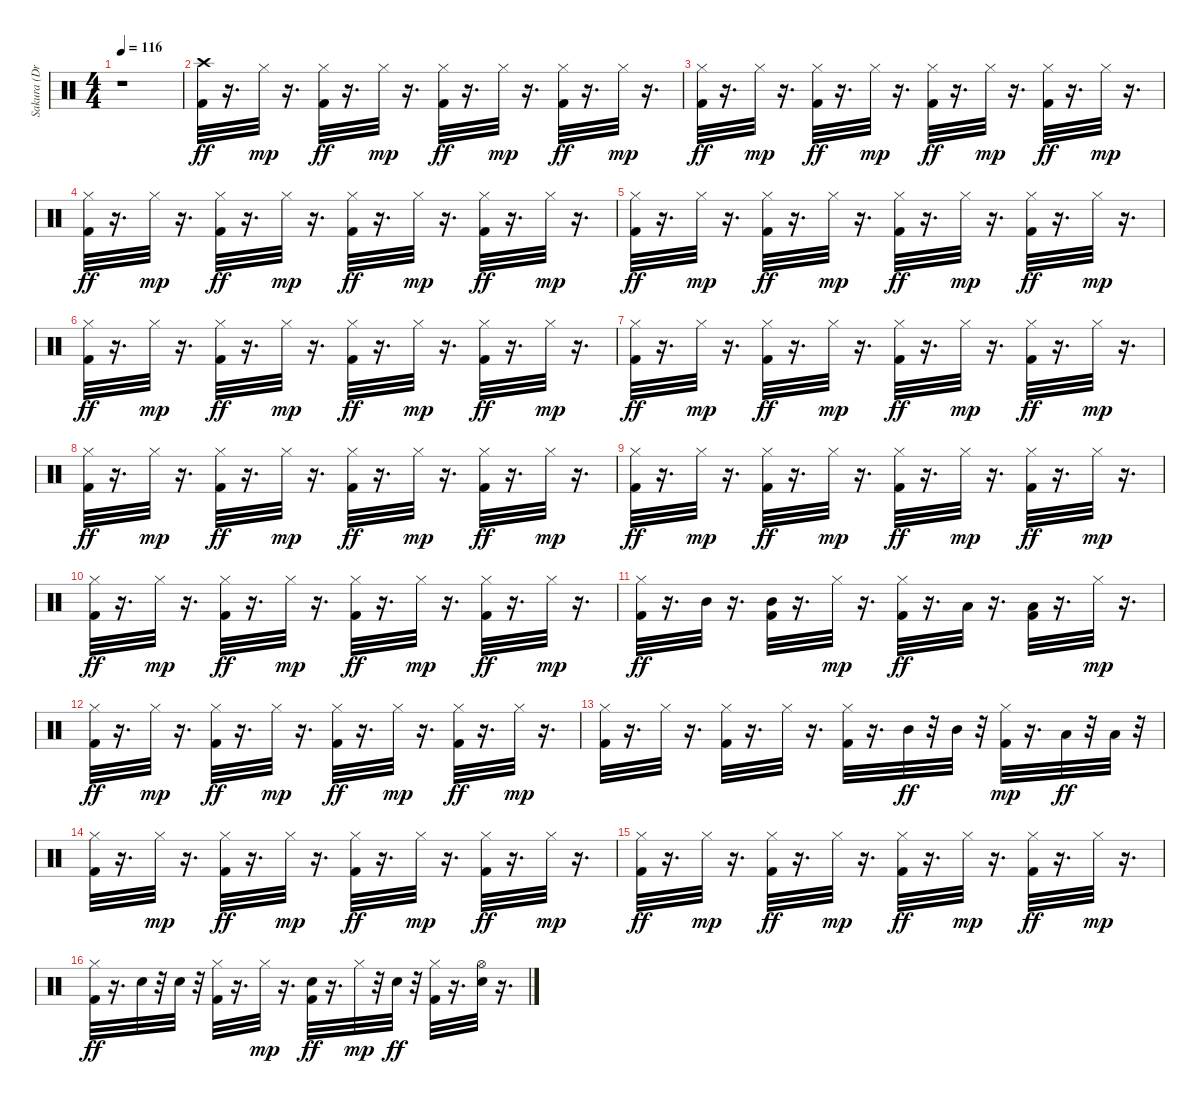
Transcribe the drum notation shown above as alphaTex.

\track ("Sakura (Drums)" "Sakura (Dr") {instrument percussion}
\staff {score}
\articulation defaults
\ts (4 4)
\tempo 116
\clef neutral
\ks c
r.1{dy ff} |
("Kick (hit) 2" "Crash high (hit)").32 r.16{d} "Hi-Hat (closed)".32{dy mp} r.16{d} ("Hi-Hat (closed)" "Kick (hit) 2").32{dy ff} r.16{d} "Hi-Hat (closed)".32{dy mp} r.16{d} ("Hi-Hat (closed)" "Kick (hit) 2").32{dy ff} r.16{d} "Hi-Hat (closed)".32{dy mp} r.16{d} ("Hi-Hat (closed)" "Kick (hit) 2").32{dy ff} r.16{d} "Hi-Hat (closed)".32{dy mp} r.16{d} |
("Hi-Hat (closed)" "Kick (hit) 2").32{dy ff} r.16{d} "Hi-Hat (closed)".32{dy mp} r.16{d} ("Hi-Hat (closed)" "Kick (hit) 2").32{dy ff} r.16{d} "Hi-Hat (closed)".32{dy mp} r.16{d} ("Hi-Hat (closed)" "Kick (hit) 2").32{dy ff} r.16{d} "Hi-Hat (closed)".32{dy mp} r.16{d} ("Hi-Hat (closed)" "Kick (hit) 2").32{dy ff} r.16{d} "Hi-Hat (closed)".32{dy mp} r.16{d} |
("Hi-Hat (closed)" "Kick (hit) 2").32{dy ff} r.16{d} "Hi-Hat (closed)".32{dy mp} r.16{d} ("Hi-Hat (closed)" "Kick (hit) 2").32{dy ff} r.16{d} "Hi-Hat (closed)".32{dy mp} r.16{d} ("Hi-Hat (closed)" "Kick (hit) 2").32{dy ff} r.16{d} "Hi-Hat (closed)".32{dy mp} r.16{d} ("Hi-Hat (closed)" "Kick (hit) 2").32{dy ff} r.16{d} "Hi-Hat (closed)".32{dy mp} r.16{d} |
("Hi-Hat (closed)" "Kick (hit) 2").32{dy ff} r.16{d} "Hi-Hat (closed)".32{dy mp} r.16{d} ("Hi-Hat (closed)" "Kick (hit) 2").32{dy ff} r.16{d} "Hi-Hat (closed)".32{dy mp} r.16{d} ("Hi-Hat (closed)" "Kick (hit) 2").32{dy ff} r.16{d} "Hi-Hat (closed)".32{dy mp} r.16{d} ("Hi-Hat (closed)" "Kick (hit) 2").32{dy ff} r.16{d} "Hi-Hat (closed)".32{dy mp} r.16{d} |
("Hi-Hat (closed)" "Kick (hit) 2").32{dy ff} r.16{d} "Hi-Hat (closed)".32{dy mp} r.16{d} ("Hi-Hat (closed)" "Kick (hit) 2").32{dy ff} r.16{d} "Hi-Hat (closed)".32{dy mp} r.16{d} ("Hi-Hat (closed)" "Kick (hit) 2").32{dy ff} r.16{d} "Hi-Hat (closed)".32{dy mp} r.16{d} ("Hi-Hat (closed)" "Kick (hit) 2").32{dy ff} r.16{d} "Hi-Hat (closed)".32{dy mp} r.16{d} |
("Hi-Hat (closed)" "Kick (hit) 2").32{dy ff} r.16{d} "Hi-Hat (closed)".32{dy mp} r.16{d} ("Hi-Hat (closed)" "Kick (hit) 2").32{dy ff} r.16{d} "Hi-Hat (closed)".32{dy mp} r.16{d} ("Hi-Hat (closed)" "Kick (hit) 2").32{dy ff} r.16{d} "Hi-Hat (closed)".32{dy mp} r.16{d} ("Hi-Hat (closed)" "Kick (hit) 2").32{dy ff} r.16{d} "Hi-Hat (closed)".32{dy mp} r.16{d} |
("Hi-Hat (closed)" "Kick (hit) 2").32{dy ff} r.16{d} "Hi-Hat (closed)".32{dy mp} r.16{d} ("Hi-Hat (closed)" "Kick (hit) 2").32{dy ff} r.16{d} "Hi-Hat (closed)".32{dy mp} r.16{d} ("Hi-Hat (closed)" "Kick (hit) 2").32{dy ff} r.16{d} "Hi-Hat (closed)".32{dy mp} r.16{d} ("Hi-Hat (closed)" "Kick (hit) 2").32{dy ff} r.16{d} "Hi-Hat (closed)".32{dy mp} r.16{d} |
("Hi-Hat (closed)" "Kick (hit) 2").32{dy ff} r.16{d} "Hi-Hat (closed)".32{dy mp} r.16{d} ("Hi-Hat (closed)" "Kick (hit) 2").32{dy ff} r.16{d} "Hi-Hat (closed)".32{dy mp} r.16{d} ("Hi-Hat (closed)" "Kick (hit) 2").32{dy ff} r.16{d} "Hi-Hat (closed)".32{dy mp} r.16{d} ("Hi-Hat (closed)" "Kick (hit) 2").32{dy ff} r.16{d} "Hi-Hat (closed)".32{dy mp} r.16{d} |
("Hi-Hat (closed)" "Kick (hit) 2").32{dy ff} r.16{d} "Hi-Hat (closed)".32{dy mp} r.16{d} ("Hi-Hat (closed)" "Kick (hit) 2").32{dy ff} r.16{d} "Hi-Hat (closed)".32{dy mp} r.16{d} ("Hi-Hat (closed)" "Kick (hit) 2").32{dy ff} r.16{d} "Hi-Hat (closed)".32{dy mp} r.16{d} ("Hi-Hat (closed)" "Kick (hit) 2").32{dy ff} r.16{d} "Hi-Hat (closed)".32{dy mp} r.16{d} |
("Hi-Hat (closed)" "Kick (hit) 2").32{dy ff} r.16{d} "Mid Tom (hit)".32 r.16{d} ("Kick (hit) 2" "Mid Tom (hit)").32 r.16{d} "Hi-Hat (closed)".32{dy mp} r.16{d} ("Hi-Hat (closed)" "Kick (hit) 2").32{dy ff} r.16{d} "Low Tom (hit)".32 r.16{d} ("Kick (hit) 2" "Low Tom (hit)").32 r.16{d} "Hi-Hat (closed)".32{dy mp} r.16{d} |
("Hi-Hat (closed)" "Kick (hit) 2").32{dy ff} r.16{d} "Hi-Hat (closed)".32{dy mp} r.16{d} ("Hi-Hat (closed)" "Kick (hit) 2").32{dy ff} r.16{d} "Hi-Hat (closed)".32{dy mp} r.16{d} ("Hi-Hat (closed)" "Kick (hit) 2").32{dy ff} r.16{d} "Hi-Hat (closed)".32{dy mp} r.16{d} ("Hi-Hat (closed)" "Kick (hit) 2").32{dy ff} r.16{d} "Hi-Hat (closed)".32{dy mp} r.16{d} |
("Kick (hit) 2" "Hi-Hat (closed)").32 r.16{d} "Hi-Hat (closed)".32 r.16{d} ("Kick (hit) 2" "Hi-Hat (closed)").32 r.16{d} "Hi-Hat (closed)".32 r.16{d} ("Kick (hit) 2" "Hi-Hat (closed)").32 r.16{d} "Mid Tom (hit)".32{dy ff} r.32 "Mid Tom (hit)".32 r.32 ("Kick (hit) 2" "Hi-Hat (closed)").32{dy mp} r.16{d} "Low Tom (hit)".32{dy ff} r.32 "Low Tom (hit)".32 r.32 |
("Hi-Hat (closed)" "Kick (hit) 2").32 r.16{d} "Hi-Hat (closed)".32{dy mp} r.16{d} ("Hi-Hat (closed)" "Kick (hit) 2").32{dy ff} r.16{d} "Hi-Hat (closed)".32{dy mp} r.16{d} ("Hi-Hat (closed)" "Kick (hit) 2").32{dy ff} r.16{d} "Hi-Hat (closed)".32{dy mp} r.16{d} ("Hi-Hat (closed)" "Kick (hit) 2").32{dy ff} r.16{d} "Hi-Hat (closed)".32{dy mp} r.16{d} |
("Hi-Hat (closed)" "Kick (hit) 2").32{dy ff} r.16{d} "Hi-Hat (closed)".32{dy mp} r.16{d} ("Hi-Hat (closed)" "Kick (hit) 2").32{dy ff} r.16{d} "Hi-Hat (closed)".32{dy mp} r.16{d} ("Hi-Hat (closed)" "Kick (hit) 2").32{dy ff} r.16{d} "Hi-Hat (closed)".32{dy mp} r.16{d} ("Hi-Hat (closed)" "Kick (hit) 2").32{dy ff} r.16{d} "Hi-Hat (closed)".32{dy mp} r.16{d} |
("Hi-Hat (closed)" "Kick (hit) 2").32{dy ff} r.16{d} "Electric Snare (hit)".32 r.32 "Electric Snare (hit)".32 r.32 ("Hi-Hat (closed)" "Kick (hit) 2").32 r.16{d} "Hi-Hat (closed)".32{dy mp} r.16{d} ("Electric Snare (hit)" "Kick (hit) 2").32{dy ff} r.16{d} "Hi-Hat (closed)".32{dy mp} r.32 "Electric Snare (hit)".32{dy ff} r.32 ("Hi-Hat (closed)" "Kick (hit) 2").32 r.16{d} ("Hi-Hat (open)" "Electric Snare (hit)").32 r.16{d}
